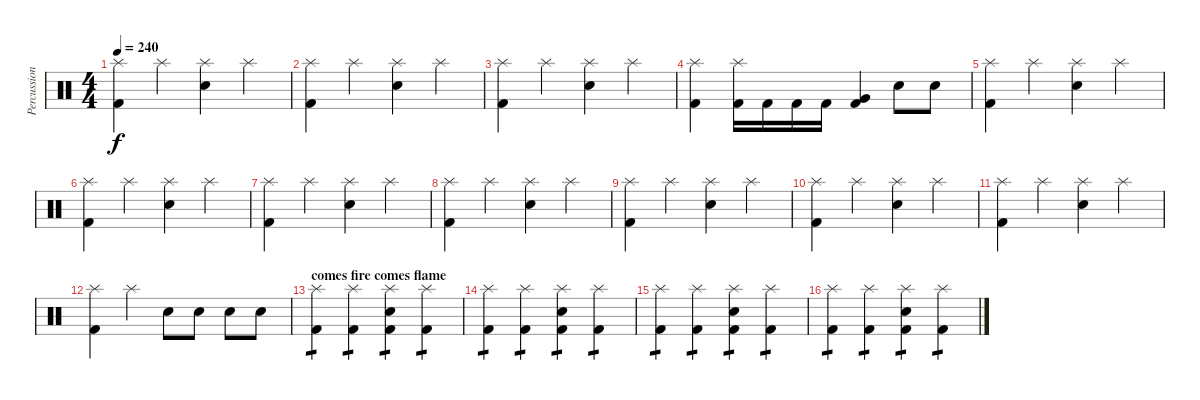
\track ("Percussions" "Percussion") {instrument percussion}
\staff {score}
\articulation defaults
\ts (4 4)
\tempo 240
\clef neutral
\ks c
("Splash (hit)" "Kick (hit) 2").4{dy f} "Splash (hit)".4 ("Splash (hit)" "Electric Snare (hit)").4 "Splash (hit)".4 |
("Splash (hit)" "Kick (hit) 2").4 "Splash (hit)".4 ("Splash (hit)" "Electric Snare (hit)").4 "Splash (hit)".4 |
("Splash (hit)" "Kick (hit) 2").4 "Splash (hit)".4 ("Splash (hit)" "Electric Snare (hit)").4 "Splash (hit)".4 |
("Splash (hit)" "Kick (hit) 2").4 ("Splash (hit)" "Kick (hit) 2").16 "Kick (hit) 2".16 "Kick (hit) 2".16 "Kick (hit) 2".16 ("Very Low Tom (hit)" "Kick (hit) 2").4 "Electric Snare (hit)".8 "Electric Snare (hit)".8 |
("Splash (hit)" "Kick (hit) 2").4 "Splash (hit)".4 ("Splash (hit)" "Electric Snare (hit)").4 "Splash (hit)".4 |
("Splash (hit)" "Kick (hit) 2").4 "Splash (hit)".4 ("Splash (hit)" "Electric Snare (hit)").4 "Splash (hit)".4 |
("Splash (hit)" "Kick (hit) 2").4 "Splash (hit)".4 ("Splash (hit)" "Electric Snare (hit)").4 "Splash (hit)".4 |
("Splash (hit)" "Kick (hit) 2").4 "Splash (hit)".4 ("Splash (hit)" "Electric Snare (hit)").4 "Splash (hit)".4 |
("Splash (hit)" "Kick (hit) 2").4 "Splash (hit)".4 ("Splash (hit)" "Electric Snare (hit)").4 "Splash (hit)".4 |
("Splash (hit)" "Kick (hit) 2").4 "Splash (hit)".4 ("Splash (hit)" "Electric Snare (hit)").4 "Splash (hit)".4 |
("Splash (hit)" "Kick (hit) 2").4 "Splash (hit)".4 ("Splash (hit)" "Electric Snare (hit)").4 "Splash (hit)".4 |
("Splash (hit)" "Kick (hit) 2").4 "Splash (hit)".4 "Electric Snare (hit)".8 "Electric Snare (hit)".8 "Electric Snare (hit)".8 "Electric Snare (hit)".8 |
\section ("" "comes fire comes flame")
("Splash (hit)" "Kick (hit) 2").4{tp 1} ("Splash (hit)" "Kick (hit) 2").4{tp 1} ("Splash (hit)" "Electric Snare (hit)" "Kick (hit) 2").4{tp 1} ("Splash (hit)" "Kick (hit) 2").4{tp 1} |
("Splash (hit)" "Kick (hit) 2").4{tp 1} ("Splash (hit)" "Kick (hit) 2").4{tp 1} ("Splash (hit)" "Electric Snare (hit)" "Kick (hit) 2").4{tp 1} ("Splash (hit)" "Kick (hit) 2").4{tp 1} |
("Splash (hit)" "Kick (hit) 2").4{tp 1} ("Splash (hit)" "Kick (hit) 2").4{tp 1} ("Splash (hit)" "Electric Snare (hit)" "Kick (hit) 2").4{tp 1} ("Splash (hit)" "Kick (hit) 2").4{tp 1} |
("Splash (hit)" "Kick (hit) 2").4{tp 1} ("Splash (hit)" "Kick (hit) 2").4{tp 1} ("Splash (hit)" "Electric Snare (hit)" "Kick (hit) 2").4{tp 1} ("Splash (hit)" "Kick (hit) 2").4{tp 1}
